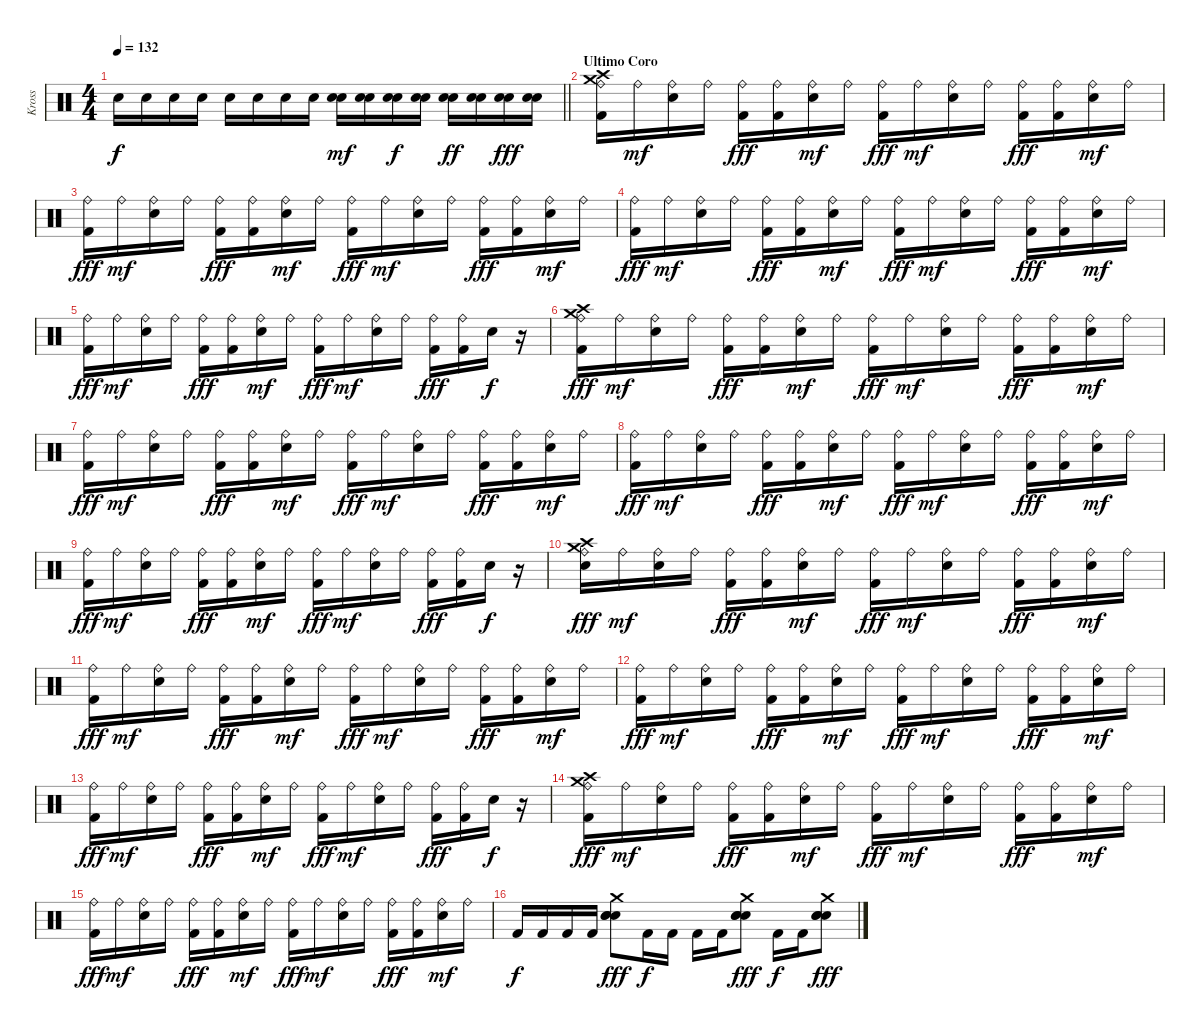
\track ("Kross" "Kross") {instrument percussion}
\staff {score}
\articulation defaults
\ts (4 4)
\tempo 132
\clef neutral
\barLineRight lightlight
\ks c "Electric Snare (hit)".16{dy f} "Electric Snare (hit)".16 "Electric Snare (hit)".16 "Electric Snare (hit)".16 "Electric Snare (hit)".16 "Electric Snare (hit)".16 "Electric Snare (hit)".16 "Electric Snare (hit)".16
("Electric Snare (hit)" "Electric Snare (hit)").16{dy mf} ("Electric Snare (hit)" "Electric Snare (hit)").16 ("Electric Snare (hit)" "Electric Snare (hit)").16{dy f} ("Electric Snare (hit)" "Electric Snare (hit)").16 ("Electric Snare (hit)" "Electric Snare (hit)").16{dy ff} ("Electric Snare (hit)" "Electric Snare (hit)").16 ("Electric Snare (hit)" "Electric Snare (hit)").16{dy fff} ("Electric Snare (hit)" "Electric Snare (hit)").16 |
\section ("" "Ultimo Coro")
("Crash high (hit)" "Crash medium (hit)" "Ride (bell)" "Kick (hit) 2").16 "Ride (bell)".16{dy mf} ("Ride (bell)" "Snare (hit) 2").16 "Ride (bell)".16 ("Ride (bell)" "Kick (hit) 2").16{dy fff} ("Ride (bell)" "Kick (hit) 2").16 ("Ride (bell)" "Snare (hit) 2").16{dy mf} "Ride (bell)".16 ("Ride (bell)" "Kick (hit) 2").16{dy fff} "Ride (bell)".16{dy mf} ("Ride (bell)" "Snare (hit) 2").16 "Ride (bell)".16 ("Ride (bell)" "Kick (hit) 2").16{dy fff} ("Ride (bell)" "Kick (hit) 2").16 ("Ride (bell)" "Snare (hit) 2").16{dy mf} "Ride (bell)".16 |
("Ride (bell)" "Kick (hit) 2").16{dy fff} "Ride (bell)".16{dy mf} ("Ride (bell)" "Snare (hit) 2").16 "Ride (bell)".16 ("Ride (bell)" "Kick (hit) 2").16{dy fff} ("Ride (bell)" "Kick (hit) 2").16 ("Ride (bell)" "Snare (hit) 2").16{dy mf} "Ride (bell)".16 ("Ride (bell)" "Kick (hit) 2").16{dy fff} "Ride (bell)".16{dy mf} ("Ride (bell)" "Snare (hit) 2").16 "Ride (bell)".16 ("Ride (bell)" "Kick (hit) 2").16{dy fff} ("Ride (bell)" "Kick (hit) 2").16 ("Ride (bell)" "Snare (hit) 2").16{dy mf} "Ride (bell)".16 |
("Ride (bell)" "Kick (hit) 2").16{dy fff} "Ride (bell)".16{dy mf} ("Ride (bell)" "Snare (hit) 2").16 "Ride (bell)".16 ("Ride (bell)" "Kick (hit) 2").16{dy fff} ("Ride (bell)" "Kick (hit) 2").16 ("Ride (bell)" "Snare (hit) 2").16{dy mf} "Ride (bell)".16 ("Ride (bell)" "Kick (hit) 2").16{dy fff} "Ride (bell)".16{dy mf} ("Ride (bell)" "Snare (hit) 2").16 "Ride (bell)".16 ("Ride (bell)" "Kick (hit) 2").16{dy fff} ("Ride (bell)" "Kick (hit) 2").16 ("Ride (bell)" "Snare (hit) 2").16{dy mf} "Ride (bell)".16 |
("Ride (bell)" "Kick (hit) 2").16{dy fff} "Ride (bell)".16{dy mf} ("Ride (bell)" "Snare (hit) 2").16 "Ride (bell)".16 ("Ride (bell)" "Kick (hit) 2").16{dy fff} ("Ride (bell)" "Kick (hit) 2").16 ("Ride (bell)" "Snare (hit) 2").16{dy mf} "Ride (bell)".16 ("Ride (bell)" "Kick (hit) 2").16{dy fff} "Ride (bell)".16{dy mf} ("Ride (bell)" "Snare (hit) 2").16 "Ride (bell)".16 ("Ride (bell)" "Kick (hit) 2").16{dy fff} ("Ride (bell)" "Kick (hit) 2").16 "Snare (hit) 2".16{dy f} r.16 |
("Crash high (hit)" "Crash medium (hit)" "Ride (bell)" "Kick (hit) 2").16{dy fff} "Ride (bell)".16{dy mf} ("Ride (bell)" "Snare (hit) 2").16 "Ride (bell)".16 ("Ride (bell)" "Kick (hit) 2").16{dy fff} ("Ride (bell)" "Kick (hit) 2").16 ("Ride (bell)" "Snare (hit) 2").16{dy mf} "Ride (bell)".16 ("Ride (bell)" "Kick (hit) 2").16{dy fff} "Ride (bell)".16{dy mf} ("Ride (bell)" "Snare (hit) 2").16 "Ride (bell)".16 ("Ride (bell)" "Kick (hit) 2").16{dy fff} ("Ride (bell)" "Kick (hit) 2").16 ("Ride (bell)" "Snare (hit) 2").16{dy mf} "Ride (bell)".16 |
("Ride (bell)" "Kick (hit) 2").16{dy fff} "Ride (bell)".16{dy mf} ("Ride (bell)" "Snare (hit) 2").16 "Ride (bell)".16 ("Ride (bell)" "Kick (hit) 2").16{dy fff} ("Ride (bell)" "Kick (hit) 2").16 ("Ride (bell)" "Snare (hit) 2").16{dy mf} "Ride (bell)".16 ("Ride (bell)" "Kick (hit) 2").16{dy fff} "Ride (bell)".16{dy mf} ("Ride (bell)" "Snare (hit) 2").16 "Ride (bell)".16 ("Ride (bell)" "Kick (hit) 2").16{dy fff} ("Ride (bell)" "Kick (hit) 2").16 ("Ride (bell)" "Snare (hit) 2").16{dy mf} "Ride (bell)".16 |
("Ride (bell)" "Kick (hit) 2").16{dy fff} "Ride (bell)".16{dy mf} ("Ride (bell)" "Snare (hit) 2").16 "Ride (bell)".16 ("Ride (bell)" "Kick (hit) 2").16{dy fff} ("Ride (bell)" "Kick (hit) 2").16 ("Ride (bell)" "Snare (hit) 2").16{dy mf} "Ride (bell)".16 ("Ride (bell)" "Kick (hit) 2").16{dy fff} "Ride (bell)".16{dy mf} ("Ride (bell)" "Snare (hit) 2").16 "Ride (bell)".16 ("Ride (bell)" "Kick (hit) 2").16{dy fff} ("Ride (bell)" "Kick (hit) 2").16 ("Ride (bell)" "Snare (hit) 2").16{dy mf} "Ride (bell)".16 |
("Ride (bell)" "Kick (hit) 2").16{dy fff} "Ride (bell)".16{dy mf} ("Ride (bell)" "Snare (hit) 2").16 "Ride (bell)".16 ("Ride (bell)" "Kick (hit) 2").16{dy fff} ("Ride (bell)" "Kick (hit) 2").16 ("Ride (bell)" "Snare (hit) 2").16{dy mf} "Ride (bell)".16 ("Ride (bell)" "Kick (hit) 2").16{dy fff} "Ride (bell)".16{dy mf} ("Ride (bell)" "Snare (hit) 2").16 "Ride (bell)".16 ("Ride (bell)" "Kick (hit) 2").16{dy fff} ("Ride (bell)" "Kick (hit) 2").16 "Snare (hit) 2".16{dy f} r.16 |
("Crash high (hit)" "Crash medium (hit)" "Ride (bell)" "Electric Snare (hit)").16{dy fff} "Ride (bell)".16{dy mf} ("Ride (bell)" "Electric Snare (hit)").16 "Ride (bell)".16 ("Ride (bell)" "Kick (hit) 2").16{dy fff} ("Ride (bell)" "Kick (hit) 2").16 ("Ride (bell)" "Electric Snare (hit)").16{dy mf} "Ride (bell)".16 ("Ride (bell)" "Kick (hit) 2").16{dy fff} "Ride (bell)".16{dy mf} ("Ride (bell)" "Electric Snare (hit)").16 "Ride (bell)".16 ("Ride (bell)" "Kick (hit) 2").16{dy fff} ("Ride (bell)" "Kick (hit) 2").16 ("Ride (bell)" "Electric Snare (hit)").16{dy mf} "Ride (bell)".16 |
("Ride (bell)" "Kick (hit) 2").16{dy fff} "Ride (bell)".16{dy mf} ("Ride (bell)" "Electric Snare (hit)").16 "Ride (bell)".16 ("Ride (bell)" "Kick (hit) 2").16{dy fff} ("Ride (bell)" "Kick (hit) 2").16 ("Ride (bell)" "Electric Snare (hit)").16{dy mf} "Ride (bell)".16 ("Ride (bell)" "Kick (hit) 2").16{dy fff} "Ride (bell)".16{dy mf} ("Ride (bell)" "Electric Snare (hit)").16 "Ride (bell)".16 ("Ride (bell)" "Kick (hit) 2").16{dy fff} ("Ride (bell)" "Kick (hit) 2").16 ("Ride (bell)" "Electric Snare (hit)").16{dy mf} "Ride (bell)".16 |
("Ride (bell)" "Kick (hit) 2").16{dy fff} "Ride (bell)".16{dy mf} ("Ride (bell)" "Electric Snare (hit)").16 "Ride (bell)".16 ("Ride (bell)" "Kick (hit) 2").16{dy fff} ("Ride (bell)" "Kick (hit) 2").16 ("Ride (bell)" "Electric Snare (hit)").16{dy mf} "Ride (bell)".16 ("Ride (bell)" "Kick (hit) 2").16{dy fff} "Ride (bell)".16{dy mf} ("Ride (bell)" "Electric Snare (hit)").16 "Ride (bell)".16 ("Ride (bell)" "Kick (hit) 2").16{dy fff} ("Ride (bell)" "Kick (hit) 2").16 ("Ride (bell)" "Electric Snare (hit)").16{dy mf} "Ride (bell)".16 |
("Ride (bell)" "Kick (hit) 2").16{dy fff} "Ride (bell)".16{dy mf} ("Ride (bell)" "Electric Snare (hit)").16 "Ride (bell)".16 ("Ride (bell)" "Kick (hit) 2").16{dy fff} ("Ride (bell)" "Kick (hit) 2").16 ("Ride (bell)" "Electric Snare (hit)").16{dy mf} "Ride (bell)".16 ("Ride (bell)" "Kick (hit) 2").16{dy fff} "Ride (bell)".16{dy mf} ("Ride (bell)" "Electric Snare (hit)").16 "Ride (bell)".16 ("Ride (bell)" "Kick (hit) 2").16{dy fff} ("Ride (bell)" "Kick (hit) 2").16 "Electric Snare (hit)".16{dy f} r.16 |
("Crash high (hit)" "Crash medium (hit)" "Ride (bell)" "Kick (hit) 2").16{dy fff} "Ride (bell)".16{dy mf} ("Ride (bell)" "Electric Snare (hit)").16 "Ride (bell)".16 ("Ride (bell)" "Kick (hit) 2").16{dy fff} ("Ride (bell)" "Kick (hit) 2").16 ("Ride (bell)" "Electric Snare (hit)").16{dy mf} "Ride (bell)".16 ("Ride (bell)" "Kick (hit) 2").16{dy fff} "Ride (bell)".16{dy mf} ("Ride (bell)" "Electric Snare (hit)").16 "Ride (bell)".16 ("Ride (bell)" "Kick (hit) 2").16{dy fff} ("Ride (bell)" "Kick (hit) 2").16 ("Ride (bell)" "Electric Snare (hit)").16{dy mf} "Ride (bell)".16 |
("Ride (bell)" "Kick (hit) 2").16{dy fff} "Ride (bell)".16{dy mf} ("Ride (bell)" "Electric Snare (hit)").16 "Ride (bell)".16 ("Ride (bell)" "Kick (hit) 2").16{dy fff} ("Ride (bell)" "Kick (hit) 2").16 ("Ride (bell)" "Electric Snare (hit)").16{dy mf} "Ride (bell)".16 ("Ride (bell)" "Kick (hit) 2").16{dy fff} "Ride (bell)".16{dy mf} ("Ride (bell)" "Electric Snare (hit)").16 "Ride (bell)".16 ("Ride (bell)" "Kick (hit) 2").16{dy fff} ("Ride (bell)" "Kick (hit) 2").16 ("Ride (bell)" "Electric Snare (hit)").16{dy mf} "Ride (bell)".16 |
"Kick (hit) 2".16{dy f} "Kick (hit) 2".16 "Kick (hit) 2".16 "Kick (hit) 2".16 ("Crash medium (hit)" "Electric Snare (hit)" "Electric Snare (hit)" "Electric Snare (hit)").8{dy fff} "Kick (hit) 2".16{dy f} "Kick (hit) 2".16 "Kick (hit) 2".16 "Kick (hit) 2".16 ("Crash medium (hit)" "Electric Snare (hit)" "Electric Snare (hit)" "Electric Snare (hit)").8{dy fff} "Kick (hit) 2".16{dy f} "Kick (hit) 2".16 ("Crash medium (hit)" "Electric Snare (hit)" "Electric Snare (hit)" "Electric Snare (hit)").8{dy fff}
